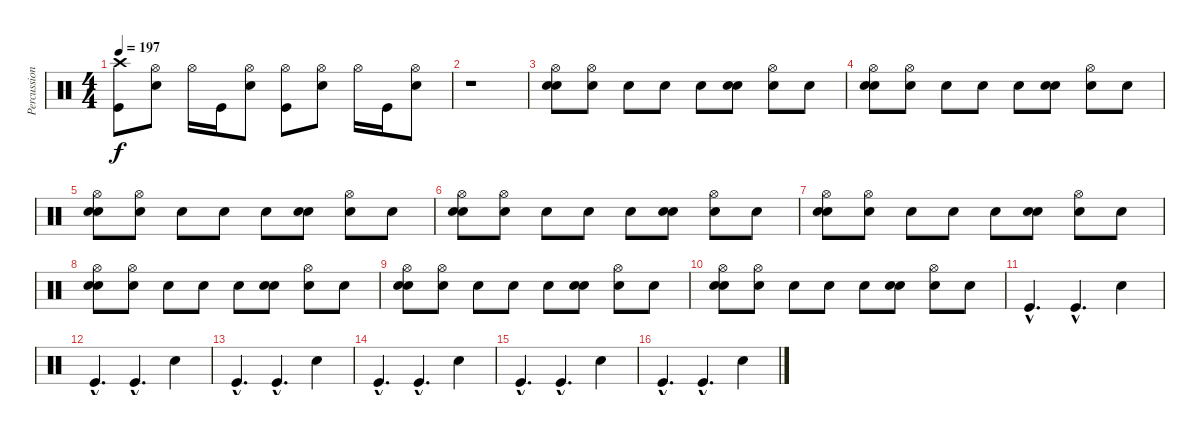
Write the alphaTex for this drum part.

\track ("Percussion" "Percussion") {instrument percussion}
\staff {score}
\articulation defaults
\ts (4 4)
\tempo 197
\clef neutral
\ks c
("Crash high (hit)" "Kick (hit)").8{dy f} ("Hi-Hat (open)" "Snare (hit) 2").8 "Hi-Hat (open)".16 "Kick (hit)".16 ("Hi-Hat (open)" "Snare (hit) 2").8 ("Hi-Hat (open)" "Kick (hit)").8 ("Hi-Hat (open)" "Snare (hit) 2").8 "Hi-Hat (open)".16 "Kick (hit)".16 ("Hi-Hat (open)" "Snare (hit) 2").8 |
r.1 |
("Hi-Hat (open)" "Snare (hit) 2" "Snare (hit)"{x}).8 ("Hi-Hat (open)"{x} "Snare (hit)"{x}).8 "Snare (hit)"{x}.8 "Snare (hit)"{x}.8 "Snare (hit)"{x}.8 ("Snare (hit) 2" "Snare (hit)"{x}).8 ("Hi-Hat (open)" "Snare (hit)"{x}).8 "Snare (hit)"{x}.8 |
("Hi-Hat (open)" "Snare (hit) 2" "Snare (hit)"{x}).8 ("Hi-Hat (open)"{x} "Snare (hit)"{x}).8 "Snare (hit)"{x}.8 "Snare (hit)"{x}.8 "Snare (hit)"{x}.8 ("Snare (hit) 2" "Snare (hit)"{x}).8 ("Hi-Hat (open)" "Snare (hit)"{x}).8 "Snare (hit)"{x}.8 |
("Hi-Hat (open)" "Snare (hit) 2" "Snare (hit)"{x}).8 ("Hi-Hat (open)"{x} "Snare (hit)"{x}).8 "Snare (hit)"{x}.8 "Snare (hit)"{x}.8 "Snare (hit)"{x}.8 ("Snare (hit) 2" "Snare (hit)"{x}).8 ("Hi-Hat (open)" "Snare (hit)"{x}).8 "Snare (hit)"{x}.8 |
("Hi-Hat (open)" "Snare (hit) 2" "Snare (hit)"{x}).8 ("Hi-Hat (open)"{x} "Snare (hit)"{x}).8 "Snare (hit)"{x}.8 "Snare (hit)"{x}.8 "Snare (hit)"{x}.8 ("Snare (hit) 2" "Snare (hit)"{x}).8 ("Hi-Hat (open)" "Snare (hit)"{x}).8 "Snare (hit)"{x}.8 |
("Hi-Hat (open)" "Snare (hit) 2" "Snare (hit)"{x}).8 ("Hi-Hat (open)"{x} "Snare (hit)"{x}).8 "Snare (hit)"{x}.8 "Snare (hit)"{x}.8 "Snare (hit)"{x}.8 ("Snare (hit) 2" "Snare (hit)"{x}).8 ("Hi-Hat (open)" "Snare (hit)"{x}).8 "Snare (hit)"{x}.8 |
("Hi-Hat (open)" "Snare (hit) 2" "Snare (hit)"{x}).8 ("Hi-Hat (open)"{x} "Snare (hit)"{x}).8 "Snare (hit)"{x}.8 "Snare (hit)"{x}.8 "Snare (hit)"{x}.8 ("Snare (hit) 2" "Snare (hit)"{x}).8 ("Hi-Hat (open)" "Snare (hit)"{x}).8 "Snare (hit)"{x}.8 |
("Hi-Hat (open)" "Snare (hit) 2" "Snare (hit)"{x}).8 ("Hi-Hat (open)"{x} "Snare (hit)"{x}).8 "Snare (hit)"{x}.8 "Snare (hit)"{x}.8 "Snare (hit)"{x}.8 ("Snare (hit) 2" "Snare (hit)"{x}).8 ("Hi-Hat (open)" "Snare (hit)"{x}).8 "Snare (hit)"{x}.8 |
("Hi-Hat (open)" "Snare (hit) 2" "Snare (hit)"{x}).8 ("Hi-Hat (open)"{x} "Snare (hit)"{x}).8 "Snare (hit)"{x}.8 "Snare (hit)"{x}.8 "Snare (hit)"{x}.8 ("Snare (hit) 2" "Snare (hit)"{x}).8 ("Hi-Hat (open)" "Snare (hit)"{x}).8 "Snare (hit)"{x}.8 |
"Kick (hit)"{hac}.4{d} "Kick (hit)"{hac}.4{d} "Snare (hit) 2".4 |
"Kick (hit)"{hac}.4{d} "Kick (hit)"{hac}.4{d} "Snare (hit) 2".4 |
"Kick (hit)"{hac}.4{d} "Kick (hit)"{hac}.4{d} "Snare (hit) 2".4 |
"Kick (hit)"{hac}.4{d} "Kick (hit)"{hac}.4{d} "Snare (hit) 2".4 |
"Kick (hit)"{hac}.4{d} "Kick (hit)"{hac}.4{d} "Snare (hit) 2".4 |
"Kick (hit)"{hac}.4{d} "Kick (hit)"{hac}.4{d} "Snare (hit) 2".4
